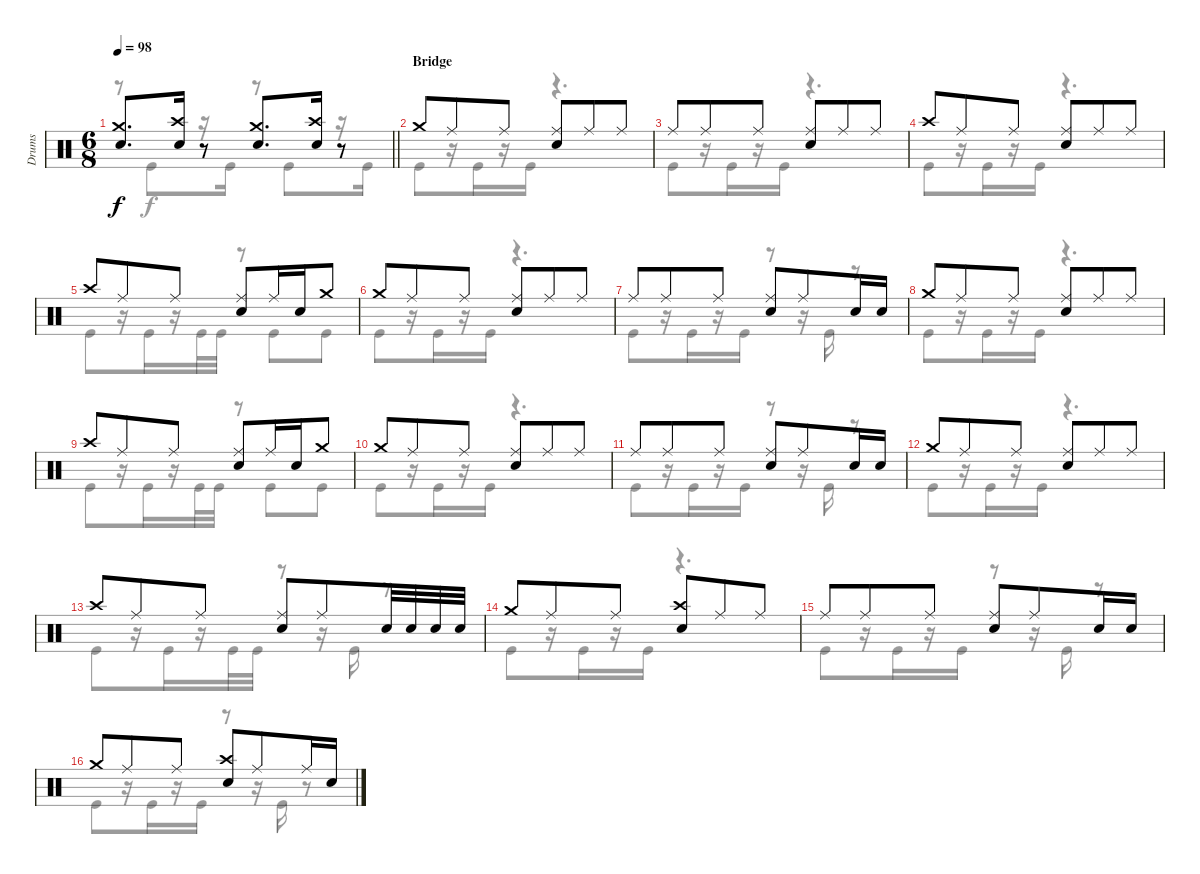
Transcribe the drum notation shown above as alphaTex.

\track ("Drums" "Drums") {instrument percussion}
\staff {score}
\articulation defaults
\voice
\ts (6 8)
\tempo 98
\clef neutral
\barLineRight lightlight
\ks c
("Crash medium (hit)" "Electric Snare (hit)").8{d dy f} ("Crash high (hit)" "Electric Snare (hit)").16 r.8 ("Crash medium (hit)" "Electric Snare (hit)").8{d} ("Crash high (hit)" "Electric Snare (hit)").16 r.8 |
\section ("" "Bridge")
"Crash medium (hit)".8 "Ride (middle)".8 "Ride (middle)".8 ("Ride (middle)" "Electric Snare (hit)").8 "Ride (middle)".8 "Ride (middle)".8 |
"Ride (middle)".8 "Ride (middle)".8 "Ride (middle)".8 ("Ride (middle)" "Electric Snare (hit)").8 "Ride (middle)".8 "Ride (middle)".8 |
"Crash high (hit)".8 "Ride (middle)".8 "Ride (middle)".8 ("Ride (middle)" "Electric Snare (hit)").8 "Ride (middle)".8 "Ride (middle)".8 |
"Crash high (hit)".8 "Ride (middle)".8 "Ride (middle)".8 ("Ride (middle)" "Electric Snare (hit)").8 "Ride (middle)".16 "Electric Snare (hit)".16 "Crash medium (hit)".8 |
"Crash medium (hit)".8 "Ride (middle)".8 "Ride (middle)".8 ("Ride (middle)" "Electric Snare (hit)").8 "Ride (middle)".8 "Ride (middle)".8 |
"Ride (middle)".8 "Ride (middle)".8 "Ride (middle)".8 ("Ride (middle)" "Electric Snare (hit)").8 "Ride (middle)".8 "Electric Snare (hit)".16 "Electric Snare (hit)".16 |
"Crash medium (hit)".8 "Ride (middle)".8 "Ride (middle)".8 ("Ride (middle)" "Electric Snare (hit)").8 "Ride (middle)".8 "Ride (middle)".8 |
"Crash high (hit)".8 "Ride (middle)".8 "Ride (middle)".8 ("Ride (middle)" "Electric Snare (hit)").8 "Ride (middle)".16 "Electric Snare (hit)".16 "Crash medium (hit)".8 |
"Crash medium (hit)".8 "Ride (middle)".8 "Ride (middle)".8 ("Ride (middle)" "Electric Snare (hit)").8 "Ride (middle)".8 "Ride (middle)".8 |
"Ride (middle)".8 "Ride (middle)".8 "Ride (middle)".8 ("Ride (middle)" "Electric Snare (hit)").8 "Ride (middle)".8 "Electric Snare (hit)".16 "Electric Snare (hit)".16 |
"Crash medium (hit)".8 "Ride (middle)".8 "Ride (middle)".8 ("Ride (middle)" "Electric Snare (hit)").8 "Ride (middle)".8 "Ride (middle)".8 |
"Crash high (hit)".8 "Ride (middle)".8 "Ride (middle)".8 ("Ride (middle)" "Electric Snare (hit)").8 "Ride (middle)".8 "Electric Snare (hit)".32 "Electric Snare (hit)".32 "Electric Snare (hit)".32 "Electric Snare (hit)".32 |
"Crash medium (hit)".8 "Ride (middle)".8 "Ride (middle)".8 ("Crash high (hit)" "Electric Snare (hit)").8 "Ride (middle)".8 "Ride (middle)".8 |
"Ride (middle)".8 "Ride (middle)".8 "Ride (middle)".8 ("Ride (middle)" "Electric Snare (hit)").8 "Ride (middle)".8 "Electric Snare (hit)".16 "Electric Snare (hit)".16 |
"Crash medium (hit)".8 "Ride (middle)".8 "Ride (middle)".8 ("Crash high (hit)" "Electric Snare (hit)").8 "Ride (middle)".8 "Ride (middle)".16 "Electric Snare (hit)".16
\voice
\clef neutral
\ottava regular
\simile none
\barLineRight lightlight
\ks c
r.8{dy f} "Kick (hit)".8 r.16 "Kick (hit)".16 r.8 "Kick (hit)".8 r.16 "Kick (hit)".16 |
"Kick (hit)".8 r.16 "Kick (hit)".16 r.16 "Kick (hit)".16 r.4{d} |
"Kick (hit)".8 r.16 "Kick (hit)".16 r.16 "Kick (hit)".16 r.4{d} |
"Kick (hit)".8 r.16 "Kick (hit)".16 r.16 "Kick (hit)".16 r.4{d} |
"Kick (hit)".8 r.16 "Kick (hit)".16 r.16 "Kick (hit)".32 "Kick (hit)".32 r.8 "Kick (hit)".8 "Kick (hit)".8 |
"Kick (hit)".8 r.16 "Kick (hit)".16 r.16 "Kick (hit)".16 r.4{d} |
"Kick (hit)".8 r.16 "Kick (hit)".16 r.16 "Kick (hit)".16 r.8 r.16 "Kick (hit)".16 r.8 |
"Kick (hit)".8 r.16 "Kick (hit)".16 r.16 "Kick (hit)".16 r.4{d} |
"Kick (hit)".8 r.16 "Kick (hit)".16 r.16 "Kick (hit)".32 "Kick (hit)".32 r.8 "Kick (hit)".8 "Kick (hit)".8 |
"Kick (hit)".8 r.16 "Kick (hit)".16 r.16 "Kick (hit)".16 r.4{d} |
"Kick (hit)".8 r.16 "Kick (hit)".16 r.16 "Kick (hit)".16 r.8 r.16 "Kick (hit)".16 r.8 |
"Kick (hit)".8 r.16 "Kick (hit)".16 r.16 "Kick (hit)".16 r.4{d} |
"Kick (hit)".8 r.16 "Kick (hit)".16 r.16 "Kick (hit)".32 "Kick (hit)".32 r.8 r.16 "Kick (hit)".16 r.8 |
"Kick (hit)".8 r.16 "Kick (hit)".16 r.16 "Kick (hit)".16 r.4{d} |
"Kick (hit)".8 r.16 "Kick (hit)".16 r.16 "Kick (hit)".16 r.8 r.16 "Kick (hit)".16 r.8 |
"Kick (hit)".8 r.16 "Kick (hit)".16 r.16 "Kick (hit)".16 r.8 r.16 "Kick (hit)".16 r.8
